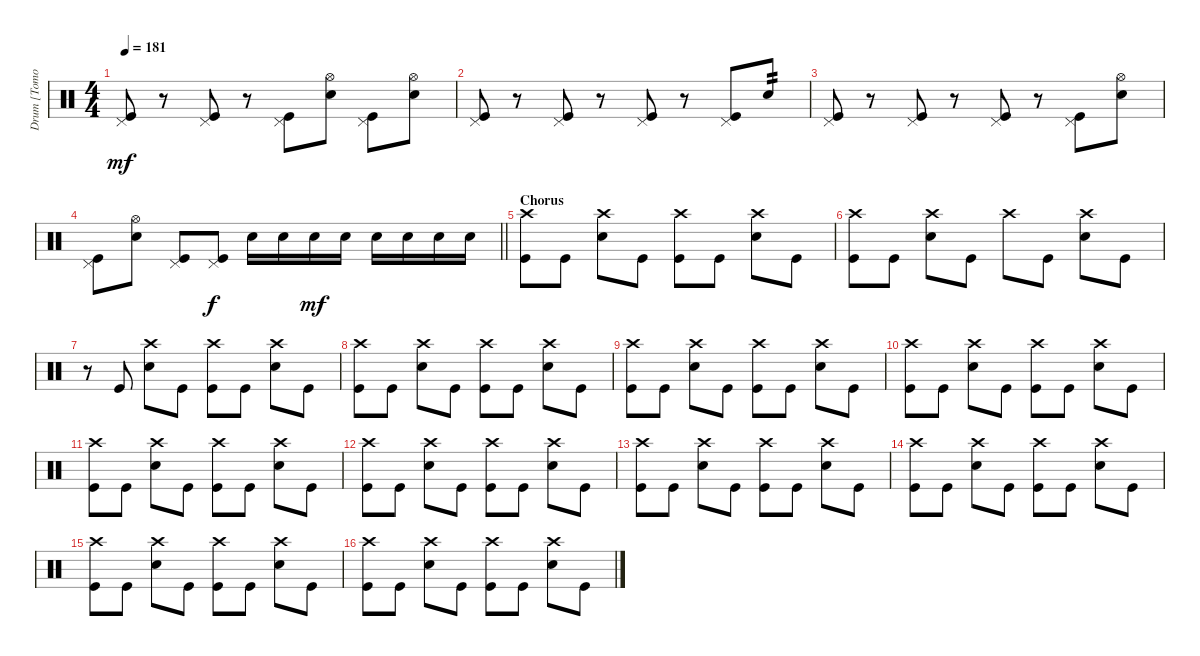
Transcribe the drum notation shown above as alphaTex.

\track ("Drum [Tomoya]" "Drum [Tomo") {instrument percussion}
\staff {score}
\articulation defaults
\ts (4 4)
\tempo 181
\clef neutral
\ks c
("Kick (hit)" "Pedal Hi-Hat (hit)").8{dy mf} r.8 ("Kick (hit)" "Pedal Hi-Hat (hit)").8 r.8 ("Kick (hit)" "Pedal Hi-Hat (hit)").8 ("Snare (hit) 2" "Hi-Hat (open)").8 ("Kick (hit)" "Pedal Hi-Hat (hit)").8 ("Snare (hit) 2" "Hi-Hat (open)").8 |
("Kick (hit)" "Pedal Hi-Hat (hit)").8 r.8 ("Kick (hit)" "Pedal Hi-Hat (hit)").8 r.8 ("Kick (hit)" "Pedal Hi-Hat (hit)").8 r.8 ("Kick (hit)" "Pedal Hi-Hat (hit)").8 "Snare (hit) 2".8{tp 2} |
("Kick (hit)" "Pedal Hi-Hat (hit)").8 r.8 ("Kick (hit)" "Pedal Hi-Hat (hit)").8 r.8 ("Kick (hit)" "Pedal Hi-Hat (hit)").8 r.8 ("Kick (hit)" "Pedal Hi-Hat (hit)").8 ("Snare (hit) 2" "Hi-Hat (open)").8 |
\barLineRight lightlight
("Kick (hit)" "Pedal Hi-Hat (hit)").8 ("Snare (hit) 2" "Hi-Hat (open)").8 ("Kick (hit)" "Pedal Hi-Hat (hit)").8 ("Kick (hit)" "Pedal Hi-Hat (hit)").8{dy f} "Snare (hit) 2".16 "Snare (hit) 2".16 "Snare (hit) 2".16{dy mf} "Snare (hit) 2".16 "Snare (hit) 2".16 "Snare (hit) 2".16 "Snare (hit) 2".16 "Snare (hit) 2".16 |
\section ("" "Chorus")
("Kick (hit)" "Crash high (hit)").8 "Kick (hit)".8 ("Snare (hit) 2" "Crash high (hit)").8 "Kick (hit)".8 ("Kick (hit)" "Crash high (hit)").8 "Kick (hit)".8 ("Snare (hit) 2" "Crash high (hit)").8 "Kick (hit)".8 |
("Kick (hit)" "Crash high (hit)").8 "Kick (hit)".8 ("Snare (hit) 2" "Crash high (hit)").8 "Kick (hit)".8 "Crash high (hit)".8 "Kick (hit)".8 ("Snare (hit) 2" "Crash high (hit)").8 "Kick (hit)".8 |
r.8 "Kick (hit)".8 ("Snare (hit) 2" "Crash high (hit)").8 "Kick (hit)".8 ("Kick (hit)" "Crash high (hit)").8 "Kick (hit)".8 ("Snare (hit) 2" "Crash high (hit)").8 "Kick (hit)".8 |
("Kick (hit)" "Crash high (hit)").8 "Kick (hit)".8 ("Snare (hit) 2" "Crash high (hit)").8 "Kick (hit)".8 ("Kick (hit)" "Crash high (hit)").8 "Kick (hit)".8 ("Snare (hit) 2" "Crash high (hit)").8 "Kick (hit)".8 |
("Kick (hit)" "Crash high (hit)").8 "Kick (hit)".8 ("Snare (hit) 2" "Crash high (hit)").8 "Kick (hit)".8 ("Kick (hit)" "Crash high (hit)").8 "Kick (hit)".8 ("Snare (hit) 2" "Crash high (hit)").8 "Kick (hit)".8 |
("Kick (hit)" "Crash high (hit)").8 "Kick (hit)".8 ("Snare (hit) 2" "Crash high (hit)").8 "Kick (hit)".8 ("Kick (hit)" "Crash high (hit)").8 "Kick (hit)".8 ("Snare (hit) 2" "Crash high (hit)").8 "Kick (hit)".8 |
("Kick (hit)" "Crash high (hit)").8 "Kick (hit)".8 ("Snare (hit) 2" "Crash high (hit)").8 "Kick (hit)".8 ("Kick (hit)" "Crash high (hit)").8 "Kick (hit)".8 ("Snare (hit) 2" "Crash high (hit)").8 "Kick (hit)".8 |
("Kick (hit)" "Crash high (hit)").8 "Kick (hit)".8 ("Snare (hit) 2" "Crash high (hit)").8 "Kick (hit)".8 ("Kick (hit)" "Crash high (hit)").8 "Kick (hit)".8 ("Snare (hit) 2" "Crash high (hit)").8 "Kick (hit)".8 |
("Kick (hit)" "Crash high (hit)").8 "Kick (hit)".8 ("Snare (hit) 2" "Crash high (hit)").8 "Kick (hit)".8 ("Kick (hit)" "Crash high (hit)").8 "Kick (hit)".8 ("Snare (hit) 2" "Crash high (hit)").8 "Kick (hit)".8 |
("Kick (hit)" "Crash high (hit)").8 "Kick (hit)".8 ("Snare (hit) 2" "Crash high (hit)").8 "Kick (hit)".8 ("Kick (hit)" "Crash high (hit)").8 "Kick (hit)".8 ("Snare (hit) 2" "Crash high (hit)").8 "Kick (hit)".8 |
("Kick (hit)" "Crash high (hit)").8 "Kick (hit)".8 ("Snare (hit) 2" "Crash high (hit)").8 "Kick (hit)".8 ("Kick (hit)" "Crash high (hit)").8 "Kick (hit)".8 ("Snare (hit) 2" "Crash high (hit)").8 "Kick (hit)".8 |
("Kick (hit)" "Crash high (hit)").8 "Kick (hit)".8 ("Snare (hit) 2" "Crash high (hit)").8 "Kick (hit)".8 ("Kick (hit)" "Crash high (hit)").8 "Kick (hit)".8 ("Snare (hit) 2" "Crash high (hit)").8 "Kick (hit)".8
